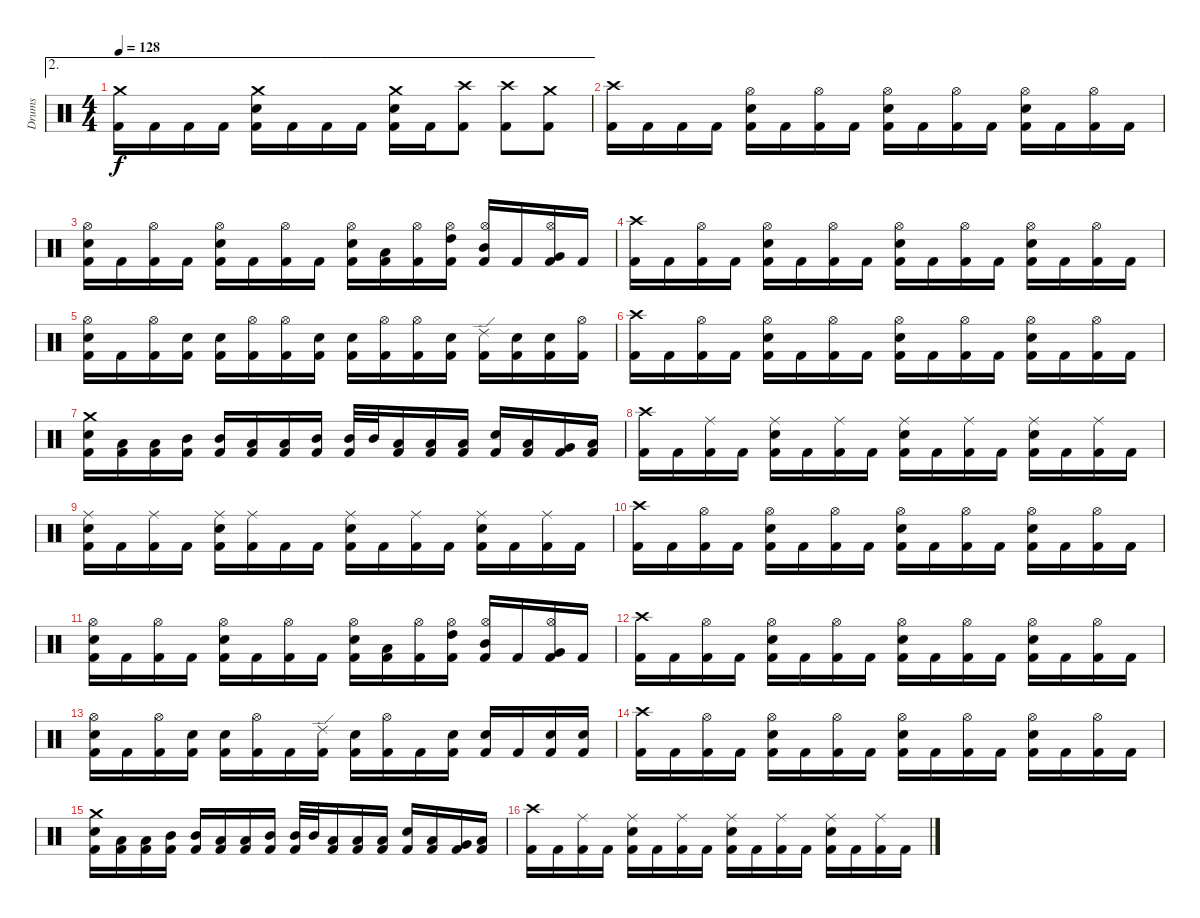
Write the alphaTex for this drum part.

\track ("Drums" "Drums") {instrument percussion}
\staff {score}
\articulation defaults
\ae 2
\ts (4 4)
\tempo 128
\clef neutral
\ks c
("Crash medium (hit)" "Kick (hit) 2").16{dy f} "Kick (hit) 2".16 "Kick (hit) 2".16 "Kick (hit) 2".16 ("Crash medium (hit)" "Electric Snare (hit)" "Kick (hit) 2").16 "Kick (hit) 2".16 "Kick (hit) 2".16 "Kick (hit) 2".16 ("Crash medium (hit)" "Electric Snare (hit)" "Kick (hit) 2").16 "Kick (hit) 2".16 ("Crash high (hit)" "Kick (hit) 2").8 ("Crash high (hit)" "Kick (hit) 2").8 ("Crash medium (hit)" "Kick (hit) 2").8 |
("Crash high (hit)" "Kick (hit) 2").16 "Kick (hit) 2".16 "Kick (hit) 2".16 "Kick (hit) 2".16 ("Hi-Hat (open)" "Electric Snare (hit)" "Kick (hit) 2").16 "Kick (hit) 2".16 ("Hi-Hat (open)" "Kick (hit) 2").16 "Kick (hit) 2".16 ("Hi-Hat (open)" "Electric Snare (hit)" "Kick (hit) 2").16 "Kick (hit) 2".16 ("Hi-Hat (open)" "Kick (hit) 2").16 "Kick (hit) 2".16 ("Hi-Hat (open)" "Electric Snare (hit)" "Kick (hit) 2").16 "Kick (hit) 2".16 ("Hi-Hat (open)" "Kick (hit) 2").16 "Kick (hit) 2".16 |
("Hi-Hat (open)" "Electric Snare (hit)" "Kick (hit) 2").16 "Kick (hit) 2".16 ("Hi-Hat (open)" "Kick (hit) 2").16 "Kick (hit) 2".16 ("Hi-Hat (open)" "Electric Snare (hit)" "Kick (hit) 2").16 "Kick (hit) 2".16 ("Hi-Hat (open)" "Kick (hit) 2").16 "Kick (hit) 2".16 ("Hi-Hat (open)" "Electric Snare (hit)" "Kick (hit) 2").16 ("Low Tom (hit)" "Kick (hit) 2").16 ("Hi-Hat (open)" "Kick (hit) 2").16 ("Hi-Hat (open)" "High Tom (hit)" "Kick (hit) 2").16 ("Hi-Hat (open)" "Mid Tom (hit)" "Kick (hit) 2").16 "Kick (hit) 2".16 ("Hi-Hat (open)" "Very Low Tom (hit)" "Kick (hit) 2").16 "Kick (hit) 2".16 |
("Crash high (hit)" "Kick (hit) 2").16 "Kick (hit) 2".16 ("Hi-Hat (open)" "Kick (hit) 2").16 "Kick (hit) 2".16 ("Hi-Hat (open)" "Electric Snare (hit)" "Kick (hit) 2").16 "Kick (hit) 2".16 ("Hi-Hat (open)" "Kick (hit) 2").16 "Kick (hit) 2".16 ("Hi-Hat (open)" "Electric Snare (hit)" "Kick (hit) 2").16 "Kick (hit) 2".16 ("Hi-Hat (open)" "Kick (hit) 2").16 "Kick (hit) 2".16 ("Hi-Hat (open)" "Electric Snare (hit)" "Kick (hit) 2").16 "Kick (hit) 2".16 ("Hi-Hat (open)" "Kick (hit) 2").16 "Kick (hit) 2".16 |
("Hi-Hat (open)" "Electric Snare (hit)" "Kick (hit) 2").16 "Kick (hit) 2".16 ("Hi-Hat (open)" "Kick (hit) 2").16 ("Electric Snare (hit)" "Kick (hit) 2").16 ("Electric Snare (hit)" "Kick (hit) 2").16 ("Hi-Hat (open)" "Kick (hit) 2").16 ("Hi-Hat (open)" "Kick (hit) 2").16 ("Electric Snare (hit)" "Kick (hit) 2").16 ("Electric Snare (hit)" "Kick (hit) 2").16 ("Hi-Hat (open)" "Kick (hit) 2").16 ("Hi-Hat (open)" "Kick (hit) 2").16 ("Electric Snare (hit)" "Kick (hit) 2").16 ("Ride (edge) 2" "Kick (hit) 2").16 ("Electric Snare (hit)" "Kick (hit) 2").16 ("Electric Snare (hit)" "Kick (hit) 2").16 ("Hi-Hat (open)" "Kick (hit) 2").16 |
("Crash high (hit)" "Kick (hit) 2").16 "Kick (hit) 2".16 ("Hi-Hat (open)" "Kick (hit) 2").16 "Kick (hit) 2".16 ("Hi-Hat (open)" "Electric Snare (hit)" "Kick (hit) 2").16 "Kick (hit) 2".16 ("Hi-Hat (open)" "Kick (hit) 2").16 "Kick (hit) 2".16 ("Hi-Hat (open)" "Electric Snare (hit)" "Kick (hit) 2").16 "Kick (hit) 2".16 ("Hi-Hat (open)" "Kick (hit) 2").16 "Kick (hit) 2".16 ("Hi-Hat (open)" "Electric Snare (hit)" "Kick (hit) 2").16 "Kick (hit) 2".16 ("Hi-Hat (open)" "Kick (hit) 2").16 "Kick (hit) 2".16 |
("Crash medium (hit)" "Electric Snare (hit)" "Kick (hit) 2").16 ("Low Tom (hit)" "Kick (hit) 2").16 ("Low Tom (hit)" "Kick (hit) 2").16 ("Mid Tom (hit)" "Kick (hit) 2").16 ("Mid Tom (hit)" "Kick (hit) 2").16 ("Low Tom (hit)" "Kick (hit) 2").16 ("Low Tom (hit)" "Kick (hit) 2").16 ("Mid Tom (hit)" "Kick (hit) 2").16 ("Mid Tom (hit)" "Kick (hit) 2").32 "Mid Tom (hit)".32 ("Low Tom (hit)" "Kick (hit) 2").16 ("Low Tom (hit)" "Kick (hit) 2").16 ("Low Floor Tom (hit)" "Kick (hit) 2").16 ("Electric Snare (hit)" "Kick (hit) 2").16 ("Low Tom (hit)" "Kick (hit) 2").16 ("Very Low Tom (hit)" "Kick (hit) 2").16 ("Low Floor Tom (hit)" "Kick (hit) 2").16 |
("Crash high (hit)" "Kick (hit) 2").16 "Kick (hit) 2".16 ("Ride (middle)" "Kick (hit) 2").16 "Kick (hit) 2".16 ("Ride (middle)" "Electric Snare (hit)" "Kick (hit) 2").16 "Kick (hit) 2".16 ("Ride (middle)" "Kick (hit) 2").16 "Kick (hit) 2".16 ("Ride (middle)" "Electric Snare (hit)" "Kick (hit) 2").16 "Kick (hit) 2".16 ("Ride (middle)" "Kick (hit) 2").16 "Kick (hit) 2".16 ("Ride (middle)" "Electric Snare (hit)" "Kick (hit) 2").16 "Kick (hit) 2".16 ("Ride (middle)" "Kick (hit) 2").16 "Kick (hit) 2".16 |
("Ride (middle)" "Electric Snare (hit)" "Kick (hit) 2").16 "Kick (hit) 2".16 ("Ride (middle)" "Kick (hit) 2").16 "Kick (hit) 2".16 ("Ride (middle)" "Electric Snare (hit)" "Kick (hit) 2").16 ("Ride (middle)" "Kick (hit) 2").16 "Kick (hit) 2".16 "Kick (hit) 2".16 ("Ride (middle)" "Electric Snare (hit)" "Kick (hit) 2").16 "Kick (hit) 2".16 ("Ride (middle)" "Kick (hit) 2").16 "Kick (hit) 2".16 ("Ride (middle)" "Electric Snare (hit)" "Kick (hit) 2").16 "Kick (hit) 2".16 ("Ride (middle)" "Kick (hit) 2").16 "Kick (hit) 2".16 |
("Crash high (hit)" "Kick (hit) 2").16 "Kick (hit) 2".16 ("Hi-Hat (open)" "Kick (hit) 2").16 "Kick (hit) 2".16 ("Hi-Hat (open)" "Electric Snare (hit)" "Kick (hit) 2").16 "Kick (hit) 2".16 ("Hi-Hat (open)" "Kick (hit) 2").16 "Kick (hit) 2".16 ("Hi-Hat (open)" "Electric Snare (hit)" "Kick (hit) 2").16 "Kick (hit) 2".16 ("Hi-Hat (open)" "Kick (hit) 2").16 "Kick (hit) 2".16 ("Hi-Hat (open)" "Electric Snare (hit)" "Kick (hit) 2").16 "Kick (hit) 2".16 ("Hi-Hat (open)" "Kick (hit) 2").16 "Kick (hit) 2".16 |
("Hi-Hat (open)" "Electric Snare (hit)" "Kick (hit) 2").16 "Kick (hit) 2".16 ("Hi-Hat (open)" "Kick (hit) 2").16 "Kick (hit) 2".16 ("Hi-Hat (open)" "Electric Snare (hit)" "Kick (hit) 2").16 "Kick (hit) 2".16 ("Hi-Hat (open)" "Kick (hit) 2").16 "Kick (hit) 2".16 ("Hi-Hat (open)" "Electric Snare (hit)" "Kick (hit) 2").16 ("Low Tom (hit)" "Kick (hit) 2").16 ("Hi-Hat (open)" "Kick (hit) 2").16 ("Hi-Hat (open)" "High Tom (hit)" "Kick (hit) 2").16 ("Hi-Hat (open)" "Mid Tom (hit)" "Kick (hit) 2").16 "Kick (hit) 2".16 ("Hi-Hat (open)" "Very Low Tom (hit)" "Kick (hit) 2").16 "Kick (hit) 2".16 |
("Crash high (hit)" "Kick (hit) 2").16 "Kick (hit) 2".16 ("Hi-Hat (open)" "Kick (hit) 2").16 "Kick (hit) 2".16 ("Hi-Hat (open)" "Electric Snare (hit)" "Kick (hit) 2").16 "Kick (hit) 2".16 ("Hi-Hat (open)" "Kick (hit) 2").16 "Kick (hit) 2".16 ("Hi-Hat (open)" "Electric Snare (hit)" "Kick (hit) 2").16 "Kick (hit) 2".16 ("Hi-Hat (open)" "Kick (hit) 2").16 "Kick (hit) 2".16 ("Hi-Hat (open)" "Electric Snare (hit)" "Kick (hit) 2").16 "Kick (hit) 2".16 ("Hi-Hat (open)" "Kick (hit) 2").16 "Kick (hit) 2".16 |
("Hi-Hat (open)" "Electric Snare (hit)" "Kick (hit) 2").16 "Kick (hit) 2".16 ("Hi-Hat (open)" "Kick (hit) 2").16 ("Electric Snare (hit)" "Kick (hit) 2").16 ("Electric Snare (hit)" "Kick (hit) 2").16 ("Hi-Hat (open)" "Kick (hit) 2").16 "Kick (hit) 2".16 ("Ride (edge) 2" "Kick (hit) 2").16 ("Electric Snare (hit)" "Kick (hit) 2").16 ("Hi-Hat (open)" "Kick (hit) 2").16 "Kick (hit) 2".16 ("Electric Snare (hit)" "Kick (hit) 2").16 ("Electric Snare (hit)" "Kick (hit) 2").16 "Kick (hit) 2".16 ("Electric Snare (hit)" "Kick (hit) 2").16 ("Electric Snare (hit)" "Kick (hit) 2").16 |
("Crash high (hit)" "Kick (hit) 2").16 "Kick (hit) 2".16 ("Hi-Hat (open)" "Kick (hit) 2").16 "Kick (hit) 2".16 ("Hi-Hat (open)" "Electric Snare (hit)" "Kick (hit) 2").16 "Kick (hit) 2".16 ("Hi-Hat (open)" "Kick (hit) 2").16 "Kick (hit) 2".16 ("Hi-Hat (open)" "Electric Snare (hit)" "Kick (hit) 2").16 "Kick (hit) 2".16 ("Hi-Hat (open)" "Kick (hit) 2").16 "Kick (hit) 2".16 ("Hi-Hat (open)" "Electric Snare (hit)" "Kick (hit) 2").16 "Kick (hit) 2".16 ("Hi-Hat (open)" "Kick (hit) 2").16 "Kick (hit) 2".16 |
("Crash medium (hit)" "Electric Snare (hit)" "Kick (hit) 2").16 ("Low Tom (hit)" "Kick (hit) 2").16 ("Low Tom (hit)" "Kick (hit) 2").16 ("Mid Tom (hit)" "Kick (hit) 2").16 ("Mid Tom (hit)" "Kick (hit) 2").16 ("Low Tom (hit)" "Kick (hit) 2").16 ("Low Tom (hit)" "Kick (hit) 2").16 ("Mid Tom (hit)" "Kick (hit) 2").16 ("Mid Tom (hit)" "Kick (hit) 2").32 "Mid Tom (hit)".32 ("Low Tom (hit)" "Kick (hit) 2").16 ("Low Tom (hit)" "Kick (hit) 2").16 ("Low Floor Tom (hit)" "Kick (hit) 2").16 ("Electric Snare (hit)" "Kick (hit) 2").16 ("Low Tom (hit)" "Kick (hit) 2").16 ("Very Low Tom (hit)" "Kick (hit) 2").16 ("Low Floor Tom (hit)" "Kick (hit) 2").16 |
("Crash high (hit)" "Kick (hit) 2").16 "Kick (hit) 2".16 ("Ride (middle)" "Kick (hit) 2").16 "Kick (hit) 2".16 ("Ride (middle)" "Electric Snare (hit)" "Kick (hit) 2").16 "Kick (hit) 2".16 ("Ride (middle)" "Kick (hit) 2").16 "Kick (hit) 2".16 ("Ride (middle)" "Electric Snare (hit)" "Kick (hit) 2").16 "Kick (hit) 2".16 ("Ride (middle)" "Kick (hit) 2").16 "Kick (hit) 2".16 ("Ride (middle)" "Electric Snare (hit)" "Kick (hit) 2").16 "Kick (hit) 2".16 ("Ride (middle)" "Kick (hit) 2").16 "Kick (hit) 2".16
